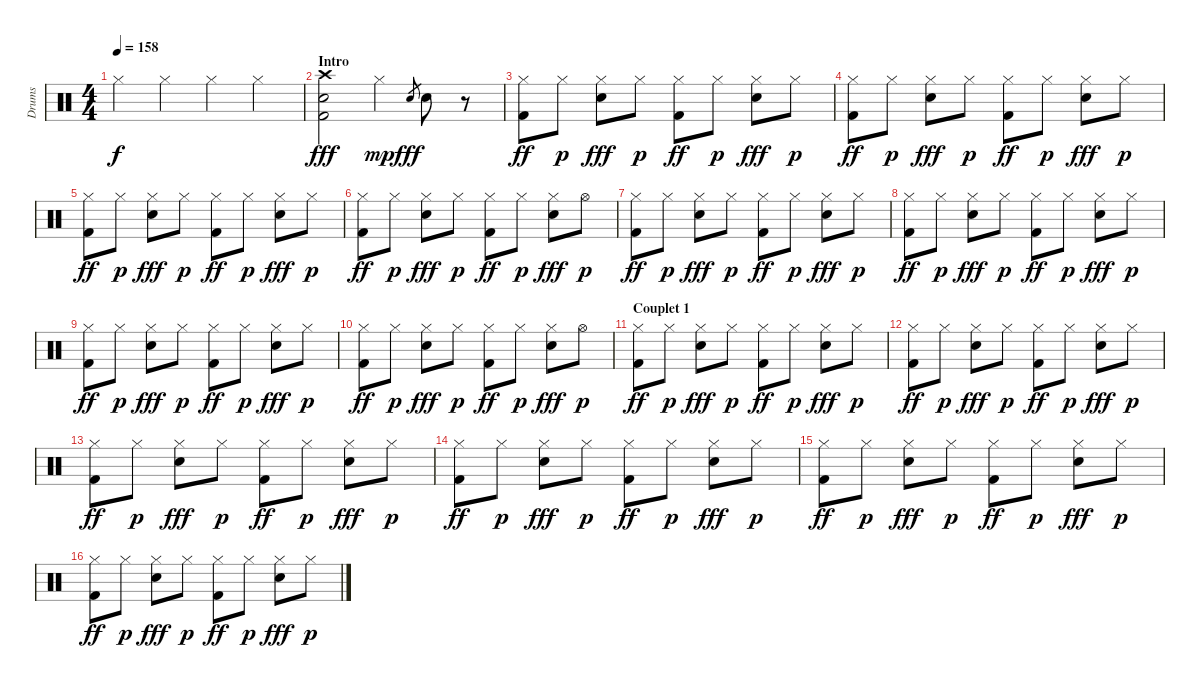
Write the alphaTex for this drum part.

\track ("Drums" "Drums") {instrument percussion}
\staff {score}
\articulation defaults
\ts (4 4)
\tempo 158
\clef neutral
\ks c "Hi-Hat (closed)".4{dy f} "Hi-Hat (closed)".4 "Hi-Hat (closed)".4 "Hi-Hat (closed)".4
|
\section ("" "Intro")
("Crash high (hit)" "Snare (hit) 2" "Kick (hit) 2").2{dy fff} "Hi-Hat (closed)".4{dy mp} "Snare (hit) 2".8{gr dy fff} "Snare (hit) 2".8 r.8 |
("Hi-Hat (closed)" "Kick (hit) 2").8{dy ff} "Hi-Hat (closed)".8{dy p} ("Hi-Hat (closed)" "Snare (hit) 2").8{dy fff} "Hi-Hat (closed)".8{dy p} ("Hi-Hat (closed)" "Kick (hit) 2").8{dy ff} "Hi-Hat (closed)".8{dy p} ("Hi-Hat (closed)" "Snare (hit) 2").8{dy fff} "Hi-Hat (closed)".8{dy p} |
("Hi-Hat (closed)" "Kick (hit) 2").8{dy ff} "Hi-Hat (closed)".8{dy p} ("Hi-Hat (closed)" "Snare (hit) 2").8{dy fff} "Hi-Hat (closed)".8{dy p} ("Hi-Hat (closed)" "Kick (hit) 2").8{dy ff} "Hi-Hat (closed)".8{dy p} ("Hi-Hat (closed)" "Snare (hit) 2").8{dy fff} "Hi-Hat (closed)".8{dy p} |
("Hi-Hat (closed)" "Kick (hit) 2").8{dy ff} "Hi-Hat (closed)".8{dy p} ("Hi-Hat (closed)" "Snare (hit) 2").8{dy fff} "Hi-Hat (closed)".8{dy p} ("Hi-Hat (closed)" "Kick (hit) 2").8{dy ff} "Hi-Hat (closed)".8{dy p} ("Hi-Hat (closed)" "Snare (hit) 2").8{dy fff} "Hi-Hat (closed)".8{dy p} |
("Hi-Hat (closed)" "Kick (hit) 2").8{dy ff} "Hi-Hat (closed)".8{dy p} ("Hi-Hat (closed)" "Snare (hit) 2").8{dy fff} "Hi-Hat (closed)".8{dy p} ("Hi-Hat (closed)" "Kick (hit) 2").8{dy ff} "Hi-Hat (closed)".8{dy p} ("Hi-Hat (closed)" "Snare (hit) 2").8{dy fff} "Hi-Hat (open)".8{dy p} |
("Hi-Hat (closed)" "Kick (hit) 2").8{dy ff} "Hi-Hat (closed)".8{dy p} ("Hi-Hat (closed)" "Snare (hit) 2").8{dy fff} "Hi-Hat (closed)".8{dy p} ("Hi-Hat (closed)" "Kick (hit) 2").8{dy ff} "Hi-Hat (closed)".8{dy p} ("Hi-Hat (closed)" "Snare (hit) 2").8{dy fff} "Hi-Hat (closed)".8{dy p} |
("Hi-Hat (closed)" "Kick (hit) 2").8{dy ff} "Hi-Hat (closed)".8{dy p} ("Hi-Hat (closed)" "Snare (hit) 2").8{dy fff} "Hi-Hat (closed)".8{dy p} ("Hi-Hat (closed)" "Kick (hit) 2").8{dy ff} "Hi-Hat (closed)".8{dy p} ("Hi-Hat (closed)" "Snare (hit) 2").8{dy fff} "Hi-Hat (closed)".8{dy p} |
("Hi-Hat (closed)" "Kick (hit) 2").8{dy ff} "Hi-Hat (closed)".8{dy p} ("Hi-Hat (closed)" "Snare (hit) 2").8{dy fff} "Hi-Hat (closed)".8{dy p} ("Hi-Hat (closed)" "Kick (hit) 2").8{dy ff} "Hi-Hat (closed)".8{dy p} ("Hi-Hat (closed)" "Snare (hit) 2").8{dy fff} "Hi-Hat (closed)".8{dy p} |
("Hi-Hat (closed)" "Kick (hit) 2").8{dy ff} "Hi-Hat (closed)".8{dy p} ("Hi-Hat (closed)" "Snare (hit) 2").8{dy fff} "Hi-Hat (closed)".8{dy p} ("Hi-Hat (closed)" "Kick (hit) 2").8{dy ff} "Hi-Hat (closed)".8{dy p} ("Hi-Hat (closed)" "Snare (hit) 2").8{dy fff} "Hi-Hat (open)".8{dy p} |
\section ("" "Couplet 1")
("Hi-Hat (closed)" "Kick (hit) 2").8{dy ff} "Hi-Hat (closed)".8{dy p} ("Hi-Hat (closed)" "Snare (hit) 2").8{dy fff} "Hi-Hat (closed)".8{dy p} ("Hi-Hat (closed)" "Kick (hit) 2").8{dy ff} "Hi-Hat (closed)".8{dy p} ("Hi-Hat (closed)" "Snare (hit) 2").8{dy fff} "Hi-Hat (closed)".8{dy p} |
("Hi-Hat (closed)" "Kick (hit) 2").8{dy ff} "Hi-Hat (closed)".8{dy p} ("Hi-Hat (closed)" "Snare (hit) 2").8{dy fff} "Hi-Hat (closed)".8{dy p} ("Hi-Hat (closed)" "Kick (hit) 2").8{dy ff} "Hi-Hat (closed)".8{dy p} ("Hi-Hat (closed)" "Snare (hit) 2").8{dy fff} "Hi-Hat (closed)".8{dy p} |
("Hi-Hat (closed)" "Kick (hit) 2").8{dy ff} "Hi-Hat (closed)".8{dy p} ("Hi-Hat (closed)" "Snare (hit) 2").8{dy fff} "Hi-Hat (closed)".8{dy p} ("Hi-Hat (closed)" "Kick (hit) 2").8{dy ff} "Hi-Hat (closed)".8{dy p} ("Hi-Hat (closed)" "Snare (hit) 2").8{dy fff} "Hi-Hat (closed)".8{dy p} |
("Hi-Hat (closed)" "Kick (hit) 2").8{dy ff} "Hi-Hat (closed)".8{dy p} ("Hi-Hat (closed)" "Snare (hit) 2").8{dy fff} "Hi-Hat (closed)".8{dy p} ("Hi-Hat (closed)" "Kick (hit) 2").8{dy ff} "Hi-Hat (closed)".8{dy p} ("Hi-Hat (closed)" "Snare (hit) 2").8{dy fff} "Hi-Hat (closed)".8{dy p} |
("Hi-Hat (closed)" "Kick (hit) 2").8{dy ff} "Hi-Hat (closed)".8{dy p} ("Hi-Hat (closed)" "Snare (hit) 2").8{dy fff} "Hi-Hat (closed)".8{dy p} ("Hi-Hat (closed)" "Kick (hit) 2").8{dy ff} "Hi-Hat (closed)".8{dy p} ("Hi-Hat (closed)" "Snare (hit) 2").8{dy fff} "Hi-Hat (closed)".8{dy p} |
("Hi-Hat (closed)" "Kick (hit) 2").8{dy ff} "Hi-Hat (closed)".8{dy p} ("Hi-Hat (closed)" "Snare (hit) 2").8{dy fff} "Hi-Hat (closed)".8{dy p} ("Hi-Hat (closed)" "Kick (hit) 2").8{dy ff} "Hi-Hat (closed)".8{dy p} ("Hi-Hat (closed)" "Snare (hit) 2").8{dy fff} "Hi-Hat (closed)".8{dy p}
